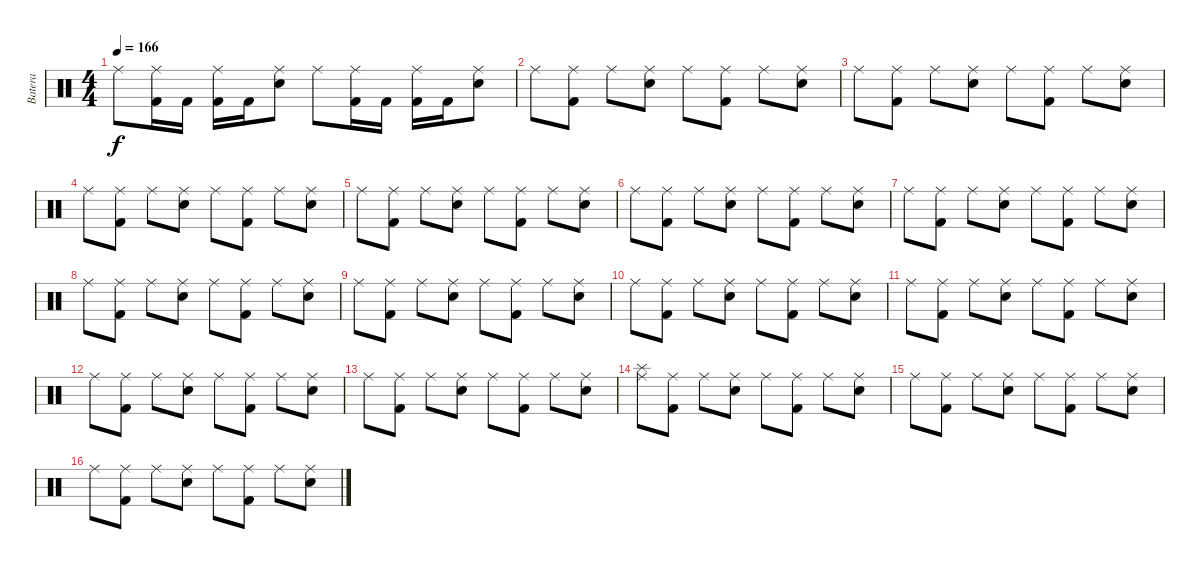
\track ("Batera" "Batera") {instrument percussion}
\staff {score}
\articulation defaults
\ts (4 4)
\tempo 166
\clef neutral
\ks c "Ride (middle)".8{dy f}
("Ride (middle)" "Kick (hit) 2").16 "Kick (hit) 2".16 ("Ride (middle)" "Kick (hit) 2").16 "Kick (hit) 2".16 ("Ride (middle)" "Snare (hit) 2").8 "Ride (middle)".8 ("Ride (middle)" "Kick (hit) 2").16 "Kick (hit) 2".16 ("Ride (middle)" "Kick (hit) 2").16 "Kick (hit) 2".16 ("Ride (middle)" "Snare (hit) 2").8 |
"Ride (middle)".8 ("Ride (middle)" "Kick (hit) 2").8 "Ride (middle)".8 ("Ride (middle)" "Snare (hit) 2").8 "Ride (middle)".8 ("Ride (middle)" "Kick (hit) 2").8 "Ride (middle)".8 ("Ride (middle)" "Snare (hit) 2").8 |
"Ride (middle)".8 ("Ride (middle)" "Kick (hit) 2").8 "Ride (middle)".8 ("Ride (middle)" "Snare (hit) 2").8 "Ride (middle)".8 ("Ride (middle)" "Kick (hit) 2").8 "Ride (middle)".8 ("Ride (middle)" "Snare (hit) 2").8 |
"Ride (middle)".8 ("Ride (middle)" "Kick (hit) 2").8 "Ride (middle)".8 ("Ride (middle)" "Snare (hit) 2").8 "Ride (middle)".8 ("Ride (middle)" "Kick (hit) 2").8 "Ride (middle)".8 ("Ride (middle)" "Snare (hit) 2").8 |
"Ride (middle)".8 ("Ride (middle)" "Kick (hit) 2").8 "Ride (middle)".8 ("Ride (middle)" "Snare (hit) 2").8 "Ride (middle)".8 ("Ride (middle)" "Kick (hit) 2").8 "Ride (middle)".8 ("Ride (middle)" "Snare (hit) 2").8 |
"Ride (middle)".8 ("Ride (middle)" "Kick (hit) 2").8 "Ride (middle)".8 ("Ride (middle)" "Snare (hit) 2").8 "Ride (middle)".8 ("Ride (middle)" "Kick (hit) 2").8 "Ride (middle)".8 ("Ride (middle)" "Snare (hit) 2").8 |
"Ride (middle)".8 ("Ride (middle)" "Kick (hit) 2").8 "Ride (middle)".8 ("Ride (middle)" "Snare (hit) 2").8 "Ride (middle)".8 ("Ride (middle)" "Kick (hit) 2").8 "Ride (middle)".8 ("Ride (middle)" "Snare (hit) 2").8 |
"Ride (middle)".8 ("Ride (middle)" "Kick (hit) 2").8 "Ride (middle)".8 ("Ride (middle)" "Snare (hit) 2").8 "Ride (middle)".8 ("Ride (middle)" "Kick (hit) 2").8 "Ride (middle)".8 ("Ride (middle)" "Snare (hit) 2").8 |
"Ride (middle)".8 ("Ride (middle)" "Kick (hit) 2").8 "Ride (middle)".8 ("Ride (middle)" "Snare (hit) 2").8 "Ride (middle)".8 ("Ride (middle)" "Kick (hit) 2").8 "Ride (middle)".8 ("Ride (middle)" "Snare (hit) 2").8 |
"Ride (middle)".8 ("Ride (middle)" "Kick (hit) 2").8 "Ride (middle)".8 ("Ride (middle)" "Snare (hit) 2").8 "Ride (middle)".8 ("Ride (middle)" "Kick (hit) 2").8 "Ride (middle)".8 ("Ride (middle)" "Snare (hit) 2").8 |
"Ride (middle)".8 ("Ride (middle)" "Kick (hit) 2").8 "Ride (middle)".8 ("Ride (middle)" "Snare (hit) 2").8 "Ride (middle)".8 ("Ride (middle)" "Kick (hit) 2").8 "Ride (middle)".8 ("Ride (middle)" "Snare (hit) 2").8 |
"Ride (middle)".8 ("Ride (middle)" "Kick (hit) 2").8 "Ride (middle)".8 ("Ride (middle)" "Snare (hit) 2").8 "Ride (middle)".8 ("Ride (middle)" "Kick (hit) 2").8 "Ride (middle)".8 ("Ride (middle)" "Snare (hit) 2").8 |
"Ride (middle)".8 ("Ride (middle)" "Kick (hit) 2").8 "Ride (middle)".8 ("Ride (middle)" "Snare (hit) 2").8 "Ride (middle)".8 ("Ride (middle)" "Kick (hit) 2").8 "Ride (middle)".8 ("Ride (middle)" "Snare (hit) 2").8 |
("Ride (middle)" "Splash (hit)").8 ("Ride (middle)" "Kick (hit) 2").8 "Ride (middle)".8 ("Ride (middle)" "Snare (hit) 2").8 "Ride (middle)".8 ("Ride (middle)" "Kick (hit) 2").8 "Ride (middle)".8 ("Ride (middle)" "Snare (hit) 2").8 |
"Ride (middle)".8 ("Ride (middle)" "Kick (hit) 2").8 "Ride (middle)".8 ("Ride (middle)" "Snare (hit) 2").8 "Ride (middle)".8 ("Ride (middle)" "Kick (hit) 2").8 "Ride (middle)".8 ("Ride (middle)" "Snare (hit) 2").8 |
"Ride (middle)".8 ("Ride (middle)" "Kick (hit) 2").8 "Ride (middle)".8 ("Ride (middle)" "Snare (hit) 2").8 "Ride (middle)".8 ("Ride (middle)" "Kick (hit) 2").8 "Ride (middle)".8 ("Ride (middle)" "Snare (hit) 2").8
